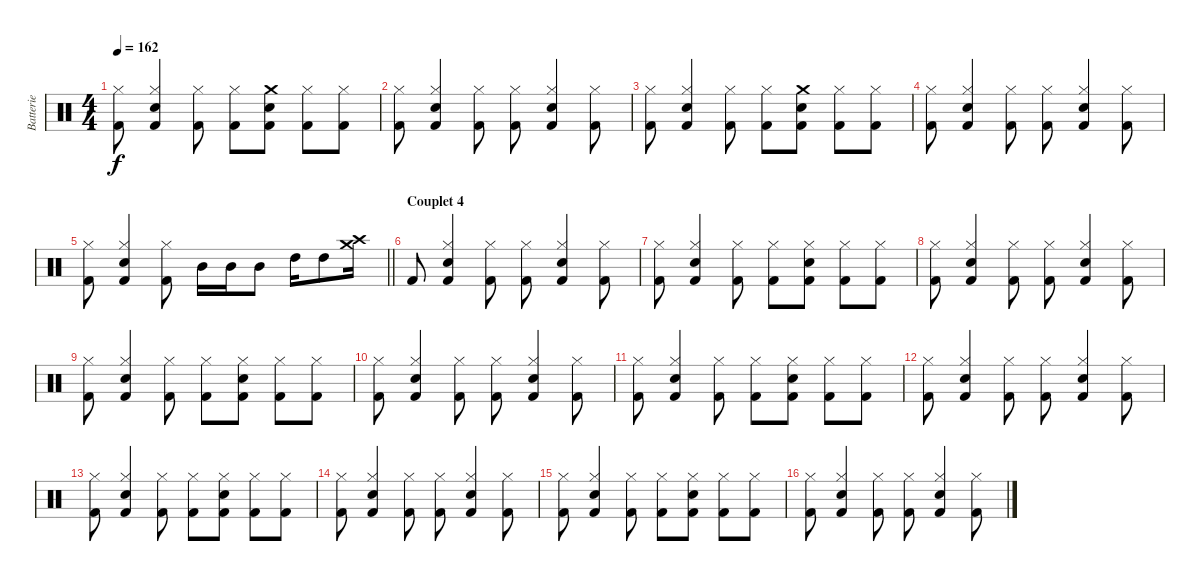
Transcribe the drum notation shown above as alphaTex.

\track ("Batterie" "Batterie") {instrument percussion}
\staff {score}
\articulation defaults
\ts (4 4)
\tempo 162
\clef neutral
\ks c
("Kick (hit) 2" "Hi-Hat (closed)").8{dy f} ("Kick (hit) 2" "Snare (hit) 2" "Hi-Hat (closed)").4 ("Kick (hit) 2" "Hi-Hat (closed)").8 ("Kick (hit) 2" "Hi-Hat (closed)").8 ("Kick (hit) 2" "Snare (hit) 2" "Crash medium (hit)").8 ("Kick (hit) 2" "Hi-Hat (closed)").8 ("Kick (hit) 2" "Hi-Hat (closed)").8 |
("Kick (hit) 2" "Hi-Hat (closed)").8 ("Kick (hit) 2" "Snare (hit) 2" "Hi-Hat (closed)").4 ("Kick (hit) 2" "Hi-Hat (closed)").8 ("Kick (hit) 2" "Hi-Hat (closed)").8 ("Kick (hit) 2" "Snare (hit) 2" "Hi-Hat (closed)").4 ("Kick (hit) 2" "Hi-Hat (closed)").8 |
("Kick (hit) 2" "Hi-Hat (closed)").8 ("Kick (hit) 2" "Snare (hit) 2" "Hi-Hat (closed)").4 ("Kick (hit) 2" "Hi-Hat (closed)").8 ("Kick (hit) 2" "Hi-Hat (closed)").8 ("Kick (hit) 2" "Snare (hit) 2" "Crash medium (hit)").8 ("Kick (hit) 2" "Hi-Hat (closed)").8 ("Kick (hit) 2" "Hi-Hat (closed)").8 |
("Kick (hit) 2" "Hi-Hat (closed)").8 ("Kick (hit) 2" "Snare (hit) 2" "Hi-Hat (closed)").4 ("Kick (hit) 2" "Hi-Hat (closed)").8 ("Kick (hit) 2" "Hi-Hat (closed)").8 ("Kick (hit) 2" "Snare (hit) 2" "Hi-Hat (closed)").4 ("Kick (hit) 2" "Hi-Hat (closed)").8 |
\barLineRight lightlight
("Kick (hit) 2" "Hi-Hat (closed)").8 ("Kick (hit) 2" "Snare (hit) 2" "Hi-Hat (closed)").4 ("Kick (hit) 2" "Hi-Hat (closed)").8 "Mid Tom (hit)".16 "Mid Tom (hit)".16 "Mid Tom (hit)".8 "High Tom (hit)".16 "High Tom (hit)".8 ("Crash medium (hit)" "Crash high (hit)").16 |
\section ("" "Couplet 4")
"Kick (hit) 2".8 ("Kick (hit) 2" "Snare (hit) 2" "Hi-Hat (closed)").4 ("Kick (hit) 2" "Hi-Hat (closed)").8 ("Kick (hit) 2" "Hi-Hat (closed)").8 ("Kick (hit) 2" "Snare (hit) 2" "Hi-Hat (closed)").4 ("Kick (hit) 2" "Hi-Hat (closed)").8 |
("Kick (hit) 2" "Hi-Hat (closed)").8 ("Kick (hit) 2" "Snare (hit) 2" "Hi-Hat (closed)").4 ("Kick (hit) 2" "Hi-Hat (closed)").8 ("Kick (hit) 2" "Hi-Hat (closed)").8 ("Kick (hit) 2" "Snare (hit) 2" "Hi-Hat (closed)").8 ("Kick (hit) 2" "Hi-Hat (closed)").8 ("Kick (hit) 2" "Hi-Hat (closed)").8 |
("Kick (hit) 2" "Hi-Hat (closed)").8 ("Kick (hit) 2" "Snare (hit) 2" "Hi-Hat (closed)").4 ("Kick (hit) 2" "Hi-Hat (closed)").8 ("Kick (hit) 2" "Hi-Hat (closed)").8 ("Kick (hit) 2" "Snare (hit) 2" "Hi-Hat (closed)").4 ("Kick (hit) 2" "Hi-Hat (closed)").8 |
("Kick (hit) 2" "Hi-Hat (closed)").8 ("Kick (hit) 2" "Snare (hit) 2" "Hi-Hat (closed)").4 ("Kick (hit) 2" "Hi-Hat (closed)").8 ("Kick (hit) 2" "Hi-Hat (closed)").8 ("Kick (hit) 2" "Snare (hit) 2" "Hi-Hat (closed)").8 ("Kick (hit) 2" "Hi-Hat (closed)").8 ("Kick (hit) 2" "Hi-Hat (closed)").8 |
("Kick (hit) 2" "Hi-Hat (closed)").8 ("Kick (hit) 2" "Snare (hit) 2" "Hi-Hat (closed)").4 ("Kick (hit) 2" "Hi-Hat (closed)").8 ("Kick (hit) 2" "Hi-Hat (closed)").8 ("Kick (hit) 2" "Snare (hit) 2" "Hi-Hat (closed)").4 ("Kick (hit) 2" "Hi-Hat (closed)").8 |
("Kick (hit) 2" "Hi-Hat (closed)").8 ("Kick (hit) 2" "Snare (hit) 2" "Hi-Hat (closed)").4 ("Kick (hit) 2" "Hi-Hat (closed)").8 ("Kick (hit) 2" "Hi-Hat (closed)").8 ("Kick (hit) 2" "Snare (hit) 2" "Hi-Hat (closed)").8 ("Kick (hit) 2" "Hi-Hat (closed)").8 ("Kick (hit) 2" "Hi-Hat (closed)").8 |
("Kick (hit) 2" "Hi-Hat (closed)").8 ("Kick (hit) 2" "Snare (hit) 2" "Hi-Hat (closed)").4 ("Kick (hit) 2" "Hi-Hat (closed)").8 ("Kick (hit) 2" "Hi-Hat (closed)").8 ("Kick (hit) 2" "Snare (hit) 2" "Hi-Hat (closed)").4 ("Kick (hit) 2" "Hi-Hat (closed)").8 |
("Kick (hit) 2" "Hi-Hat (closed)").8 ("Kick (hit) 2" "Snare (hit) 2" "Hi-Hat (closed)").4 ("Kick (hit) 2" "Hi-Hat (closed)").8 ("Kick (hit) 2" "Hi-Hat (closed)").8 ("Kick (hit) 2" "Snare (hit) 2" "Hi-Hat (closed)").8 ("Kick (hit) 2" "Hi-Hat (closed)").8 ("Kick (hit) 2" "Hi-Hat (closed)").8 |
("Kick (hit) 2" "Hi-Hat (closed)").8 ("Kick (hit) 2" "Snare (hit) 2" "Hi-Hat (closed)").4 ("Kick (hit) 2" "Hi-Hat (closed)").8 ("Kick (hit) 2" "Hi-Hat (closed)").8 ("Kick (hit) 2" "Snare (hit) 2" "Hi-Hat (closed)").4 ("Kick (hit) 2" "Hi-Hat (closed)").8 |
("Kick (hit) 2" "Hi-Hat (closed)").8 ("Kick (hit) 2" "Snare (hit) 2" "Hi-Hat (closed)").4 ("Kick (hit) 2" "Hi-Hat (closed)").8 ("Kick (hit) 2" "Hi-Hat (closed)").8 ("Kick (hit) 2" "Snare (hit) 2" "Hi-Hat (closed)").8 ("Kick (hit) 2" "Hi-Hat (closed)").8 ("Kick (hit) 2" "Hi-Hat (closed)").8 |
("Kick (hit) 2" "Hi-Hat (closed)").8 ("Kick (hit) 2" "Snare (hit) 2" "Hi-Hat (closed)").4 ("Kick (hit) 2" "Hi-Hat (closed)").8 ("Kick (hit) 2" "Hi-Hat (closed)").8 ("Kick (hit) 2" "Snare (hit) 2" "Hi-Hat (closed)").4 ("Kick (hit) 2" "Hi-Hat (closed)").8
